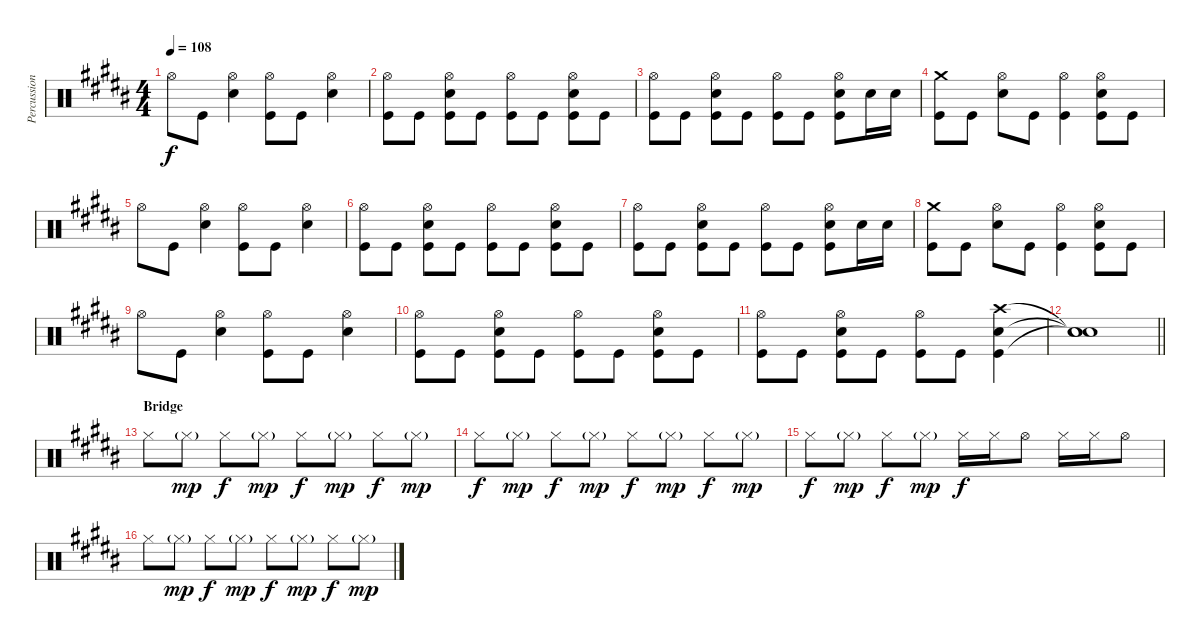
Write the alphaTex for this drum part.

\track ("Percussion" "Percussion") {instrument percussion}
\staff {score}
\articulation defaults
\ts (4 4)
\tempo 108
\clef neutral
\ks b "Hi-Hat (open)".8{dy f} "Kick (hit)".8
("Hi-Hat (open)" "Electric Snare (hit)").4 ("Hi-Hat (open)" "Kick (hit)").8 "Kick (hit)".8 ("Hi-Hat (open)" "Electric Snare (hit)").4 |
("Hi-Hat (open)" "Kick (hit)").8 "Kick (hit)".8 ("Hi-Hat (open)" "Electric Snare (hit)" "Kick (hit)").8 "Kick (hit)".8 ("Hi-Hat (open)" "Kick (hit)").8 "Kick (hit)".8 ("Hi-Hat (open)" "Electric Snare (hit)" "Kick (hit)").8 "Kick (hit)".8 |
("Hi-Hat (open)" "Kick (hit)").8 "Kick (hit)".8 ("Hi-Hat (open)" "Electric Snare (hit)" "Kick (hit)").8 "Kick (hit)".8 ("Hi-Hat (open)" "Kick (hit)").8 "Kick (hit)".8 ("Hi-Hat (open)" "Electric Snare (hit)" "Kick (hit)").8 "Electric Snare (hit)".16 "Electric Snare (hit)".16 |
("Crash medium (hit)" "Kick (hit)").8 "Kick (hit)".8 ("Hi-Hat (open)" "Electric Snare (hit)").8 "Kick (hit)".8 ("Hi-Hat (open)" "Kick (hit)").4 ("Hi-Hat (open)" "Electric Snare (hit)" "Kick (hit)").8 "Kick (hit)".8 |
"Hi-Hat (open)".8 "Kick (hit)".8 ("Hi-Hat (open)" "Electric Snare (hit)").4 ("Hi-Hat (open)" "Kick (hit)").8 "Kick (hit)".8 ("Hi-Hat (open)" "Electric Snare (hit)").4 |
("Hi-Hat (open)" "Kick (hit)").8 "Kick (hit)".8 ("Hi-Hat (open)" "Electric Snare (hit)" "Kick (hit)").8 "Kick (hit)".8 ("Hi-Hat (open)" "Kick (hit)").8 "Kick (hit)".8 ("Hi-Hat (open)" "Electric Snare (hit)" "Kick (hit)").8 "Kick (hit)".8 |
("Hi-Hat (open)" "Kick (hit)").8 "Kick (hit)".8 ("Hi-Hat (open)" "Electric Snare (hit)" "Kick (hit)").8 "Kick (hit)".8 ("Hi-Hat (open)" "Kick (hit)").8 "Kick (hit)".8 ("Hi-Hat (open)" "Electric Snare (hit)" "Kick (hit)").8 "Electric Snare (hit)".16 "Electric Snare (hit)".16 |
("Crash medium (hit)" "Kick (hit)").8 "Kick (hit)".8 ("Hi-Hat (open)" "Electric Snare (hit)").8 "Kick (hit)".8 ("Hi-Hat (open)" "Kick (hit)").4 ("Hi-Hat (open)" "Electric Snare (hit)" "Kick (hit)").8 "Kick (hit)".8 |
"Hi-Hat (open)".8 "Kick (hit)".8 ("Hi-Hat (open)" "Electric Snare (hit)").4 ("Hi-Hat (open)" "Kick (hit)").8 "Kick (hit)".8 ("Hi-Hat (open)" "Electric Snare (hit)").4 |
("Hi-Hat (open)" "Kick (hit)").8 "Kick (hit)".8 ("Hi-Hat (open)" "Electric Snare (hit)" "Kick (hit)").8 "Kick (hit)".8 ("Hi-Hat (open)" "Kick (hit)").8 "Kick (hit)".8 ("Hi-Hat (open)" "Electric Snare (hit)" "Kick (hit)").8 "Kick (hit)".8 |
("Hi-Hat (open)" "Kick (hit)").8 "Kick (hit)".8 ("Hi-Hat (open)" "Electric Snare (hit)" "Kick (hit)").8 "Kick (hit)".8 ("Hi-Hat (open)" "Kick (hit)").8 "Kick (hit)".8 ("Crash high (hit)" "Electric Snare (hit)" "Kick (hit)").4 |
\barLineRight lightlight
("Snare (hit)"{t} "Snare (hit)"{t} "Snare (hit)"{t}).1 |
\section ("" "Bridge")
"Hi-Hat (closed)".8 "Hi-Hat (closed)"{g}.8{dy mp} "Hi-Hat (closed)".8{dy f} "Hi-Hat (closed)"{g}.8{dy mp} "Hi-Hat (closed)".8{dy f} "Hi-Hat (closed)"{g}.8{dy mp} "Hi-Hat (closed)".8{dy f} "Hi-Hat (closed)"{g}.8{dy mp} |
"Hi-Hat (closed)".8{dy f} "Hi-Hat (closed)"{g}.8{dy mp} "Hi-Hat (closed)".8{dy f} "Hi-Hat (closed)"{g}.8{dy mp} "Hi-Hat (closed)".8{dy f} "Hi-Hat (closed)"{g}.8{dy mp} "Hi-Hat (closed)".8{dy f} "Hi-Hat (closed)"{g}.8{dy mp} |
"Hi-Hat (closed)".8{dy f} "Hi-Hat (closed)"{g}.8{dy mp} "Hi-Hat (closed)".8{dy f} "Hi-Hat (closed)"{g}.8{dy mp} "Hi-Hat (closed)".16{dy f} "Hi-Hat (closed)".16 "Hi-Hat (open)".8 "Hi-Hat (closed)".16 "Hi-Hat (closed)".16 "Hi-Hat (open)".8 |
"Hi-Hat (closed)".8 "Hi-Hat (closed)"{g}.8{dy mp} "Hi-Hat (closed)".8{dy f} "Hi-Hat (closed)"{g}.8{dy mp} "Hi-Hat (closed)".8{dy f} "Hi-Hat (closed)"{g}.8{dy mp} "Hi-Hat (closed)".8{dy f} "Hi-Hat (closed)"{g}.8{dy mp}
